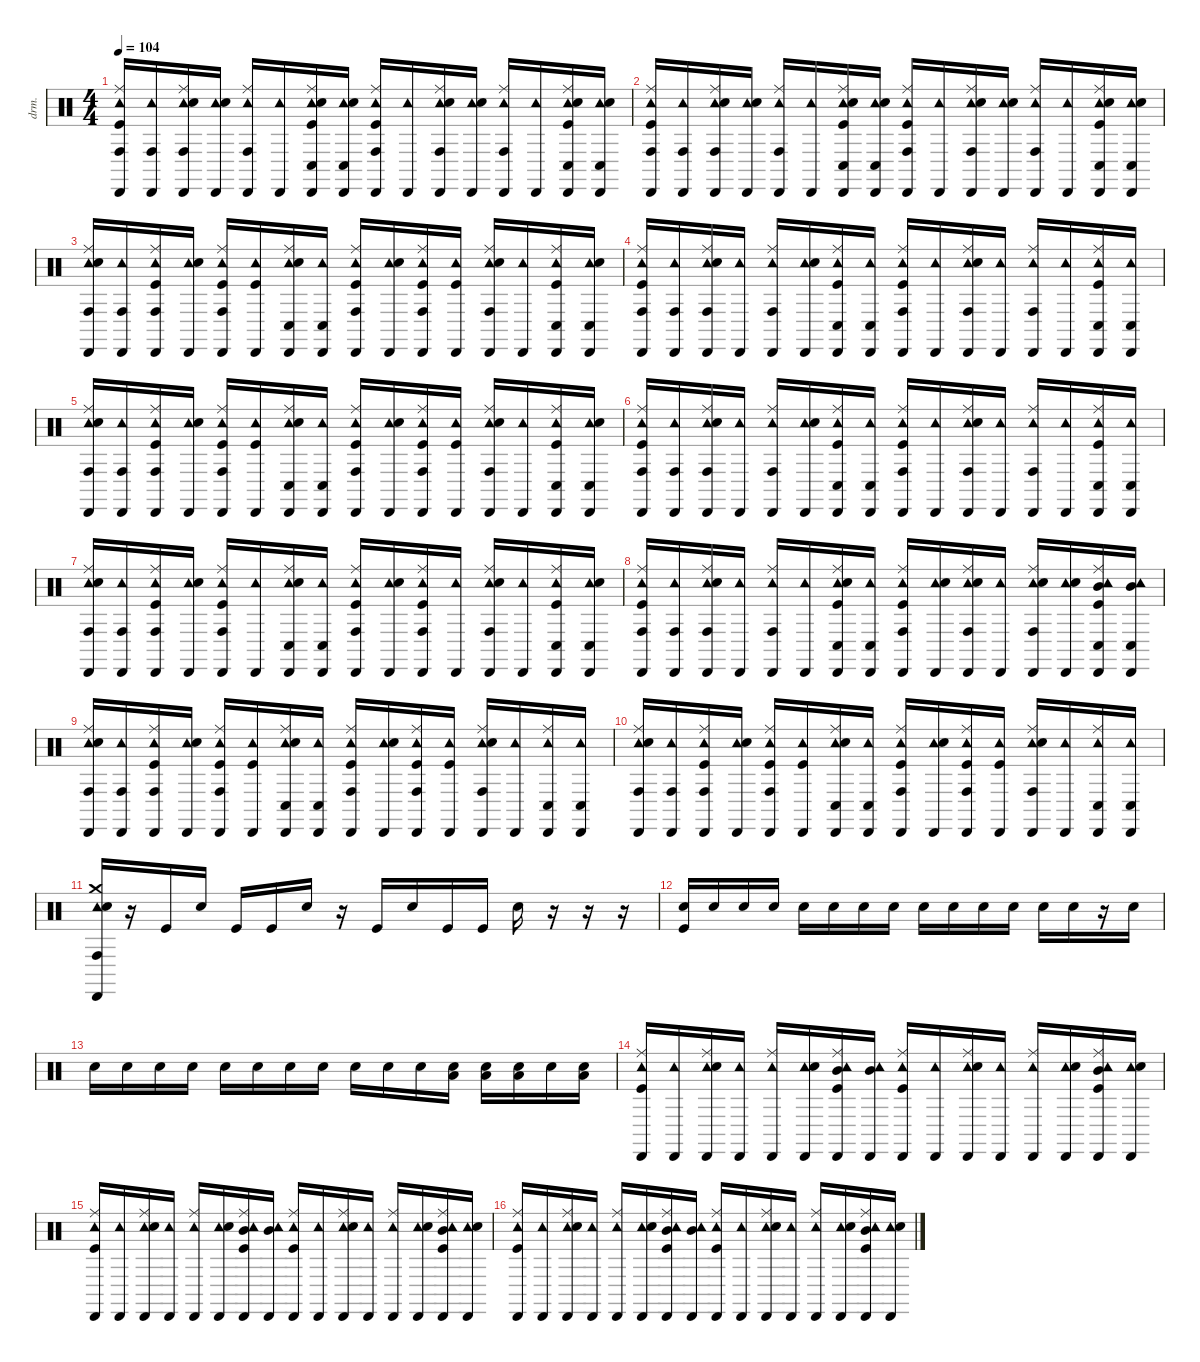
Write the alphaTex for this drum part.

\defaultSystemsLayout 4
\hideDynamics
\bracketExtendMode nobrackets
\otherSystemsTrackNameOrientation horizontal
\track ("Drums" "drm.") {instrument percussion}
\staff {score}
\articulation defaults
\ts (4 4)
\tempo 104
\clef neutral
\ks c
("Cabasa (hit)" "Conga high (hit)" "Tambourine (hit)" "Ride (middle)" "Kick (hit)").16{dy f beam Up} ("Cabasa (hit)" "Conga high (hit)" "Tambourine (hit)").16{beam Up} ("Cabasa (hit)" "Conga high (hit)" "Tambourine (hit)" "Ride (middle)" "Snare (hit) 2").16{beam Up} ("Cabasa (hit)" "Tambourine (hit)" "Snare (hit) 2").16{beam Up} ("Cabasa (hit)" "Conga high (hit)" "Tambourine (hit)" "Ride (middle)").16{beam Up} ("Cabasa (hit)" "Tambourine (hit)").16{beam Up} ("Cabasa (hit)" "Conga low (hit)" "Tambourine (hit)" "Ride (middle)" "Snare (hit) 2" "Kick (hit)").16{beam Up} ("Cabasa (hit)" "Conga low (hit)" "Tambourine (hit)" "Snare (hit) 2").16{beam Up} ("Cabasa (hit)" "Conga high (hit)" "Tambourine (hit)" "Ride (middle)" "Kick (hit)").16{beam Up} ("Cabasa (hit)" "Tambourine (hit)").16{beam Up} ("Cabasa (hit)" "Conga high (hit)" "Tambourine (hit)" "Ride (middle)" "Snare (hit) 2").16{beam Up} ("Cabasa (hit)" "Tambourine (hit)" "Snare (hit) 2").16{beam Up} ("Cabasa (hit)" "Conga high (hit)" "Tambourine (hit)" "Ride (middle)").16{beam Up} ("Cabasa (hit)" "Tambourine (hit)").16{beam Up} ("Cabasa (hit)" "Conga low (hit)" "Tambourine (hit)" "Ride (middle)" "Snare (hit) 2" "Kick (hit)").16{beam Up} ("Cabasa (hit)" "Conga low (hit)" "Tambourine (hit)" "Snare (hit) 2").16{beam Up} |
("Cabasa (hit)" "Conga high (hit)" "Tambourine (hit)" "Ride (middle)" "Kick (hit)").16{beam Up} ("Cabasa (hit)" "Conga high (hit)" "Tambourine (hit)").16{beam Up} ("Cabasa (hit)" "Conga high (hit)" "Tambourine (hit)" "Ride (middle)" "Snare (hit) 2").16{beam Up} ("Cabasa (hit)" "Tambourine (hit)" "Snare (hit) 2").16{beam Up} ("Cabasa (hit)" "Conga high (hit)" "Tambourine (hit)" "Ride (middle)").16{beam Up} ("Cabasa (hit)" "Tambourine (hit)").16{beam Up} ("Cabasa (hit)" "Conga low (hit)" "Tambourine (hit)" "Ride (middle)" "Snare (hit) 2" "Kick (hit)").16{beam Up} ("Cabasa (hit)" "Conga low (hit)" "Tambourine (hit)" "Snare (hit) 2").16{beam Up} ("Cabasa (hit)" "Conga high (hit)" "Tambourine (hit)" "Ride (middle)" "Kick (hit)").16{beam Up} ("Cabasa (hit)" "Tambourine (hit)").16{beam Up} ("Cabasa (hit)" "Conga high (hit)" "Tambourine (hit)" "Ride (middle)" "Snare (hit) 2").16{beam Up} ("Cabasa (hit)" "Tambourine (hit)" "Snare (hit) 2").16{beam Up} ("Cabasa (hit)" "Conga high (hit)" "Tambourine (hit)" "Ride (middle)").16{beam Up} ("Cabasa (hit)" "Tambourine (hit)").16{beam Up} ("Cabasa (hit)" "Conga low (hit)" "Tambourine (hit)" "Ride (middle)" "Snare (hit) 2" "Kick (hit)").16{beam Up} ("Cabasa (hit)" "Conga low (hit)" "Tambourine (hit)" "Snare (hit) 2").16{beam Up} |
("Cabasa (hit)" "Conga high (hit)" "Tambourine (hit)" "Ride (middle)" "Snare (hit) 2").16{beam Up} ("Cabasa (hit)" "Conga high (hit)" "Tambourine (hit)").16{beam Up} ("Cabasa (hit)" "Conga high (hit)" "Tambourine (hit)" "Ride (middle)" "Kick (hit)").16{beam Up} ("Cabasa (hit)" "Tambourine (hit)" "Snare (hit) 2").16{beam Up} ("Cabasa (hit)" "Conga high (hit)" "Tambourine (hit)" "Ride (middle)" "Kick (hit)").16{beam Up} ("Cabasa (hit)" "Tambourine (hit)" "Kick (hit)").16{beam Up} ("Cabasa (hit)" "Conga low (hit)" "Tambourine (hit)" "Ride (middle)" "Snare (hit) 2").16{beam Up} ("Cabasa (hit)" "Conga low (hit)" "Tambourine (hit)").16{beam Up} ("Cabasa (hit)" "Conga high (hit)" "Tambourine (hit)" "Ride (middle)" "Kick (hit)").16{beam Up} ("Cabasa (hit)" "Tambourine (hit)" "Snare (hit) 2").16{beam Up} ("Cabasa (hit)" "Conga high (hit)" "Tambourine (hit)" "Ride (middle)" "Kick (hit)").16{beam Up} ("Cabasa (hit)" "Tambourine (hit)" "Kick (hit)").16{beam Up} ("Cabasa (hit)" "Conga high (hit)" "Tambourine (hit)" "Ride (middle)" "Snare (hit) 2").16{beam Up} ("Cabasa (hit)" "Tambourine (hit)").16{beam Up} ("Cabasa (hit)" "Conga low (hit)" "Tambourine (hit)" "Ride (middle)" "Kick (hit)").16{beam Up} ("Cabasa (hit)" "Conga low (hit)" "Tambourine (hit)" "Snare (hit) 2").16{beam Up} |
("Cabasa (hit)" "Conga high (hit)" "Tambourine (hit)" "Ride (middle)" "Kick (hit)").16{beam Up} ("Cabasa (hit)" "Conga high (hit)" "Tambourine (hit)").16{beam Up} ("Cabasa (hit)" "Conga high (hit)" "Tambourine (hit)" "Ride (middle)" "Snare (hit) 2").16{beam Up} ("Cabasa (hit)" "Tambourine (hit)").16{beam Up} ("Cabasa (hit)" "Conga high (hit)" "Tambourine (hit)" "Ride (middle)").16{beam Up} ("Cabasa (hit)" "Tambourine (hit)" "Snare (hit) 2").16{beam Up} ("Cabasa (hit)" "Conga low (hit)" "Tambourine (hit)" "Ride (middle)" "Kick (hit)").16{beam Up} ("Cabasa (hit)" "Conga low (hit)" "Tambourine (hit)").16{beam Up} ("Cabasa (hit)" "Conga high (hit)" "Tambourine (hit)" "Ride (middle)" "Kick (hit)").16{beam Up} ("Cabasa (hit)" "Tambourine (hit)").16{beam Up} ("Cabasa (hit)" "Conga high (hit)" "Tambourine (hit)" "Ride (middle)" "Snare (hit) 2").16{beam Up} ("Cabasa (hit)" "Tambourine (hit)").16{beam Up} ("Cabasa (hit)" "Conga high (hit)" "Tambourine (hit)" "Ride (middle)").16{beam Up} ("Cabasa (hit)" "Tambourine (hit)").16{beam Up} ("Cabasa (hit)" "Conga low (hit)" "Tambourine (hit)" "Ride (middle)" "Kick (hit)").16{beam Up} ("Cabasa (hit)" "Conga low (hit)" "Tambourine (hit)").16{beam Up} |
("Cabasa (hit)" "Conga high (hit)" "Tambourine (hit)" "Ride (middle)" "Snare (hit) 2").16{beam Up} ("Cabasa (hit)" "Conga high (hit)" "Tambourine (hit)").16{beam Up} ("Cabasa (hit)" "Conga high (hit)" "Tambourine (hit)" "Ride (middle)" "Kick (hit)").16{beam Up} ("Cabasa (hit)" "Tambourine (hit)" "Snare (hit) 2").16{beam Up} ("Cabasa (hit)" "Conga high (hit)" "Tambourine (hit)" "Ride (middle)" "Kick (hit)").16{beam Up} ("Cabasa (hit)" "Tambourine (hit)" "Kick (hit)").16{beam Up} ("Cabasa (hit)" "Conga low (hit)" "Tambourine (hit)" "Ride (middle)" "Snare (hit) 2").16{beam Up} ("Cabasa (hit)" "Conga low (hit)" "Tambourine (hit)").16{beam Up} ("Cabasa (hit)" "Conga high (hit)" "Tambourine (hit)" "Ride (middle)" "Kick (hit)").16{beam Up} ("Cabasa (hit)" "Tambourine (hit)" "Snare (hit) 2").16{beam Up} ("Cabasa (hit)" "Conga high (hit)" "Tambourine (hit)" "Ride (middle)" "Kick (hit)").16{beam Up} ("Cabasa (hit)" "Tambourine (hit)" "Kick (hit)").16{beam Up} ("Cabasa (hit)" "Conga high (hit)" "Tambourine (hit)" "Ride (middle)" "Snare (hit) 2").16{beam Up} ("Cabasa (hit)" "Tambourine (hit)").16{beam Up} ("Cabasa (hit)" "Conga low (hit)" "Tambourine (hit)" "Ride (middle)" "Kick (hit)").16{beam Up} ("Cabasa (hit)" "Conga low (hit)" "Tambourine (hit)" "Snare (hit) 2").16{beam Up} |
("Cabasa (hit)" "Conga high (hit)" "Tambourine (hit)" "Ride (middle)" "Kick (hit)").16{beam Up} ("Cabasa (hit)" "Conga high (hit)" "Tambourine (hit)").16{beam Up} ("Cabasa (hit)" "Conga high (hit)" "Tambourine (hit)" "Ride (middle)" "Snare (hit) 2").16{beam Up} ("Cabasa (hit)" "Tambourine (hit)").16{beam Up} ("Cabasa (hit)" "Conga high (hit)" "Tambourine (hit)" "Ride (middle)").16{beam Up} ("Cabasa (hit)" "Tambourine (hit)" "Snare (hit) 2").16{beam Up} ("Cabasa (hit)" "Conga low (hit)" "Tambourine (hit)" "Ride (middle)" "Kick (hit)").16{beam Up} ("Cabasa (hit)" "Conga low (hit)" "Tambourine (hit)").16{beam Up} ("Cabasa (hit)" "Conga high (hit)" "Tambourine (hit)" "Ride (middle)" "Kick (hit)").16{beam Up} ("Cabasa (hit)" "Tambourine (hit)").16{beam Up} ("Cabasa (hit)" "Conga high (hit)" "Tambourine (hit)" "Ride (middle)" "Snare (hit) 2").16{beam Up} ("Cabasa (hit)" "Tambourine (hit)").16{beam Up} ("Cabasa (hit)" "Conga high (hit)" "Tambourine (hit)" "Ride (middle)").16{beam Up} ("Cabasa (hit)" "Tambourine (hit)").16{beam Up} ("Cabasa (hit)" "Conga low (hit)" "Tambourine (hit)" "Ride (middle)" "Kick (hit)").16{beam Up} ("Cabasa (hit)" "Conga low (hit)" "Tambourine (hit)").16{beam Up} |
("Cabasa (hit)" "Conga high (hit)" "Tambourine (hit)" "Ride (middle)" "Snare (hit) 2").16{beam Up} ("Cabasa (hit)" "Conga high (hit)" "Tambourine (hit)").16{beam Up} ("Cabasa (hit)" "Conga high (hit)" "Tambourine (hit)" "Ride (middle)" "Kick (hit)").16{beam Up} ("Cabasa (hit)" "Tambourine (hit)" "Snare (hit) 2").16{beam Up} ("Cabasa (hit)" "Conga high (hit)" "Tambourine (hit)" "Ride (middle)" "Kick (hit)").16{beam Up} ("Cabasa (hit)" "Tambourine (hit)").16{beam Up} ("Cabasa (hit)" "Conga low (hit)" "Tambourine (hit)" "Ride (middle)" "Snare (hit) 2").16{beam Up} ("Cabasa (hit)" "Conga low (hit)" "Tambourine (hit)").16{beam Up} ("Cabasa (hit)" "Conga high (hit)" "Tambourine (hit)" "Ride (middle)" "Kick (hit)").16{beam Up} ("Cabasa (hit)" "Tambourine (hit)" "Snare (hit) 2").16{beam Up} ("Cabasa (hit)" "Conga high (hit)" "Tambourine (hit)" "Ride (middle)" "Kick (hit)").16{beam Up} ("Cabasa (hit)" "Tambourine (hit)").16{beam Up} ("Cabasa (hit)" "Conga high (hit)" "Tambourine (hit)" "Ride (middle)" "Snare (hit) 2").16{beam Up} ("Cabasa (hit)" "Tambourine (hit)").16{beam Up} ("Cabasa (hit)" "Conga low (hit)" "Tambourine (hit)" "Ride (middle)" "Kick (hit)").16{beam Up} ("Cabasa (hit)" "Conga low (hit)" "Tambourine (hit)" "Snare (hit) 2").16{beam Up} |
("Cabasa (hit)" "Conga high (hit)" "Tambourine (hit)" "Ride (middle)" "Kick (hit)").16{beam Up} ("Cabasa (hit)" "Conga high (hit)" "Tambourine (hit)").16{beam Up} ("Cabasa (hit)" "Conga high (hit)" "Tambourine (hit)" "Ride (middle)" "Snare (hit) 2").16{beam Up} ("Cabasa (hit)" "Tambourine (hit)").16{beam Up} ("Cabasa (hit)" "Conga high (hit)" "Tambourine (hit)" "Ride (middle)").16{beam Up} ("Cabasa (hit)" "Tambourine (hit)").16{beam Up} ("Cabasa (hit)" "Conga low (hit)" "Tambourine (hit)" "Ride (middle)" "Snare (hit) 2" "Kick (hit)").16{beam Up} ("Cabasa (hit)" "Conga low (hit)" "Tambourine (hit)").16{beam Up} ("Cabasa (hit)" "Conga high (hit)" "Tambourine (hit)" "Ride (middle)" "Kick (hit)").16{beam Up} ("Cabasa (hit)" "Tambourine (hit)" "Snare (hit) 2").16{beam Up} ("Cabasa (hit)" "Conga high (hit)" "Tambourine (hit)" "Ride (middle)" "Snare (hit) 2").16{beam Up} ("Cabasa (hit)" "Tambourine (hit)").16{beam Up} ("Cabasa (hit)" "Conga high (hit)" "Tambourine (hit)" "Ride (middle)" "Snare (hit) 2").16{beam Up} ("Cabasa (hit)" "Tambourine (hit)" "Snare (hit) 2").16{beam Up} ("Cabasa (hit)" "Conga low (hit)" "Tambourine (hit)" "Ride (middle)" "Mid Tom (hit)" "Kick (hit)").16{beam Up} ("Cabasa (hit)" "Conga low (hit)" "Tambourine (hit)" "Mid Tom (hit)").16{beam Up} |
("Cabasa (hit)" "Conga high (hit)" "Tambourine (hit)" "Ride (middle)" "Snare (hit) 2").16{beam Up} ("Cabasa (hit)" "Conga high (hit)" "Tambourine (hit)").16{beam Up} ("Cabasa (hit)" "Conga high (hit)" "Tambourine (hit)" "Ride (middle)" "Kick (hit)").16{beam Up} ("Cabasa (hit)" "Tambourine (hit)" "Snare (hit) 2").16{beam Up} ("Cabasa (hit)" "Conga high (hit)" "Tambourine (hit)" "Ride (middle)" "Kick (hit)").16{beam Up} ("Cabasa (hit)" "Tambourine (hit)" "Kick (hit)").16{beam Up} ("Cabasa (hit)" "Conga low (hit)" "Tambourine (hit)" "Ride (middle)" "Snare (hit) 2").16{beam Up} ("Cabasa (hit)" "Conga low (hit)" "Tambourine (hit)").16{beam Up} ("Cabasa (hit)" "Conga high (hit)" "Tambourine (hit)" "Ride (middle)" "Kick (hit)").16{beam Up} ("Cabasa (hit)" "Tambourine (hit)" "Snare (hit) 2").16{beam Up} ("Cabasa (hit)" "Conga high (hit)" "Tambourine (hit)" "Ride (middle)" "Kick (hit)").16{beam Up} ("Cabasa (hit)" "Tambourine (hit)" "Kick (hit)").16{beam Up} ("Cabasa (hit)" "Conga high (hit)" "Tambourine (hit)" "Ride (middle)" "Snare (hit) 2").16{beam Up} ("Cabasa (hit)" "Tambourine (hit)").16{beam Up} ("Cabasa (hit)" "Conga low (hit)" "Tambourine (hit)" "Ride (middle)").16{beam Up} ("Cabasa (hit)" "Conga low (hit)" "Tambourine (hit)").16{beam Up} |
("Cabasa (hit)" "Conga high (hit)" "Tambourine (hit)" "Ride (middle)" "Snare (hit) 2").16{beam Up} ("Cabasa (hit)" "Conga high (hit)" "Tambourine (hit)").16{beam Up} ("Cabasa (hit)" "Conga high (hit)" "Tambourine (hit)" "Ride (middle)" "Kick (hit)").16{beam Up} ("Cabasa (hit)" "Tambourine (hit)" "Snare (hit) 2").16{beam Up} ("Cabasa (hit)" "Conga high (hit)" "Tambourine (hit)" "Ride (middle)" "Kick (hit)").16{beam Up} ("Cabasa (hit)" "Tambourine (hit)" "Kick (hit)").16{beam Up} ("Cabasa (hit)" "Conga low (hit)" "Tambourine (hit)" "Ride (middle)" "Snare (hit) 2").16{beam Up} ("Cabasa (hit)" "Conga low (hit)" "Tambourine (hit)").16{beam Up} ("Cabasa (hit)" "Conga high (hit)" "Tambourine (hit)" "Ride (middle)" "Kick (hit)").16{beam Up} ("Cabasa (hit)" "Tambourine (hit)" "Snare (hit) 2").16{beam Up} ("Cabasa (hit)" "Conga high (hit)" "Tambourine (hit)" "Ride (middle)" "Kick (hit)").16{beam Up} ("Cabasa (hit)" "Tambourine (hit)" "Kick (hit)").16{beam Up} ("Cabasa (hit)" "Conga high (hit)" "Tambourine (hit)" "Ride (middle)" "Snare (hit) 2").16{beam Up} ("Cabasa (hit)" "Tambourine (hit)").16{beam Up} ("Cabasa (hit)" "Conga low (hit)" "Tambourine (hit)" "Ride (middle)").16{beam Up} ("Cabasa (hit)" "Conga low (hit)" "Tambourine (hit)").16{beam Up} |
("Cabasa (hit)" "Conga high (hit)" "Tambourine (hit)" "Crash medium (hit)" "Snare (hit) 2").16{beam Up} r.16{beam Up} "Kick (hit)".16{beam Up} "Snare (hit) 2".16{beam Up} "Kick (hit)".16{beam Up} "Kick (hit)".16{beam Up} "Snare (hit) 2".16{beam Up} r.16{beam Up} "Kick (hit)".16{beam Up} "Snare (hit) 2".16{beam Up} "Kick (hit)".16{beam Up} "Kick (hit)".16{beam Up} "Snare (hit) 2".16{beam Down} r.16{beam Down} r.16{beam Down} r.16{beam Down} |
("Snare (hit) 2" "Kick (hit)").16{beam Up} "Snare (hit) 2".16{beam Up} "Snare (hit) 2".16{beam Up} "Snare (hit) 2".16{beam Up} "Snare (hit) 2".16{beam Down} "Snare (hit) 2".16{beam Down} "Snare (hit) 2".16{beam Down} "Snare (hit) 2".16{beam Down} "Snare (hit) 2".16{beam Down} "Snare (hit) 2".16{beam Down} "Snare (hit) 2".16{beam Down} "Snare (hit) 2".16{beam Down} "Snare (hit) 2".16{beam Down} "Snare (hit) 2".16{beam Down} r.16{beam Down} "Snare (hit) 2".16{beam Down} |
"Snare (hit) 2".16{beam Down} "Snare (hit) 2".16{beam Down} "Snare (hit) 2".16{beam Down} "Snare (hit) 2".16{beam Down} "Snare (hit) 2".16{beam Down} "Snare (hit) 2".16{beam Down} "Snare (hit) 2".16{beam Down} "Snare (hit) 2".16{beam Down} "Snare (hit) 2".16{beam Down} "Snare (hit) 2".16{beam Down} "Snare (hit) 2".16{beam Down} ("Low Tom (hit)" "Snare (hit) 2").16{beam Down} ("Low Tom (hit)" "Snare (hit) 2").16{beam Down} ("Low Tom (hit)" "Snare (hit) 2").16{beam Down} "Snare (hit) 2".16{beam Down} ("Low Tom (hit)" "Snare (hit) 2").16{beam Down} |
("Cabasa (hit)" "Ride (middle)" "Tambourine (hit)" "Kick (hit)").16{beam Up} ("Cabasa (hit)" "Tambourine (hit)").16{beam Up} ("Cabasa (hit)" "Ride (middle)" "Tambourine (hit)" "Snare (hit) 2").16{beam Up} ("Cabasa (hit)" "Tambourine (hit)").16{beam Up} ("Cabasa (hit)" "Ride (middle)" "Tambourine (hit)").16{beam Up} ("Cabasa (hit)" "Tambourine (hit)" "Snare (hit) 2").16{beam Up} ("Cabasa (hit)" "Ride (middle)" "Tambourine (hit)" "Mid Tom (hit)" "Kick (hit)").16{beam Up} ("Cabasa (hit)" "Tambourine (hit)" "Mid Tom (hit)").16{beam Up} ("Cabasa (hit)" "Ride (middle)" "Tambourine (hit)" "Kick (hit)").16{beam Up} ("Cabasa (hit)" "Tambourine (hit)").16{beam Up} ("Cabasa (hit)" "Ride (middle)" "Tambourine (hit)" "Snare (hit) 2").16{beam Up} ("Cabasa (hit)" "Tambourine (hit)").16{beam Up} ("Cabasa (hit)" "Ride (middle)" "Tambourine (hit)").16{beam Up} ("Cabasa (hit)" "Tambourine (hit)" "Snare (hit) 2").16{beam Up} ("Cabasa (hit)" "Ride (middle)" "Tambourine (hit)" "Mid Tom (hit)" "Kick (hit)").16{beam Up} ("Cabasa (hit)" "Tambourine (hit)" "Snare (hit) 2").16{beam Up} |
("Cabasa (hit)" "Ride (middle)" "Tambourine (hit)" "Kick (hit)").16{beam Up} ("Cabasa (hit)" "Tambourine (hit)").16{beam Up} ("Cabasa (hit)" "Ride (middle)" "Tambourine (hit)" "Snare (hit) 2").16{beam Up} ("Cabasa (hit)" "Tambourine (hit)").16{beam Up} ("Cabasa (hit)" "Ride (middle)" "Tambourine (hit)").16{beam Up} ("Cabasa (hit)" "Tambourine (hit)" "Snare (hit) 2").16{beam Up} ("Cabasa (hit)" "Ride (middle)" "Tambourine (hit)" "Mid Tom (hit)" "Kick (hit)").16{beam Up} ("Cabasa (hit)" "Tambourine (hit)" "Mid Tom (hit)").16{beam Up} ("Cabasa (hit)" "Ride (middle)" "Tambourine (hit)" "Kick (hit)").16{beam Up} ("Cabasa (hit)" "Tambourine (hit)").16{beam Up} ("Cabasa (hit)" "Ride (middle)" "Tambourine (hit)" "Snare (hit) 2").16{beam Up} ("Cabasa (hit)" "Tambourine (hit)").16{beam Up} ("Cabasa (hit)" "Ride (middle)" "Tambourine (hit)").16{beam Up} ("Cabasa (hit)" "Tambourine (hit)" "Snare (hit) 2").16{beam Up} ("Cabasa (hit)" "Ride (middle)" "Tambourine (hit)" "Mid Tom (hit)" "Kick (hit)").16{beam Up} ("Cabasa (hit)" "Tambourine (hit)" "Snare (hit) 2").16{beam Up} |
("Cabasa (hit)" "Ride (middle)" "Tambourine (hit)" "Kick (hit)").16{beam Up} ("Cabasa (hit)" "Tambourine (hit)").16{beam Up} ("Cabasa (hit)" "Ride (middle)" "Tambourine (hit)" "Snare (hit) 2").16{beam Up} ("Cabasa (hit)" "Tambourine (hit)").16{beam Up} ("Cabasa (hit)" "Ride (middle)" "Tambourine (hit)").16{beam Up} ("Cabasa (hit)" "Tambourine (hit)" "Snare (hit) 2").16{beam Up} ("Cabasa (hit)" "Ride (middle)" "Tambourine (hit)" "Mid Tom (hit)" "Kick (hit)").16{beam Up} ("Cabasa (hit)" "Tambourine (hit)" "Mid Tom (hit)").16{beam Up} ("Cabasa (hit)" "Ride (middle)" "Tambourine (hit)" "Kick (hit)").16{beam Up} ("Cabasa (hit)" "Tambourine (hit)").16{beam Up} ("Cabasa (hit)" "Ride (middle)" "Tambourine (hit)" "Snare (hit) 2").16{beam Up} ("Cabasa (hit)" "Tambourine (hit)").16{beam Up} ("Cabasa (hit)" "Ride (middle)" "Tambourine (hit)").16{beam Up} ("Cabasa (hit)" "Tambourine (hit)" "Snare (hit) 2").16{beam Up} ("Cabasa (hit)" "Ride (middle)" "Tambourine (hit)" "Mid Tom (hit)" "Kick (hit)").16{beam Up} ("Cabasa (hit)" "Tambourine (hit)" "Snare (hit) 2").16{beam Up}
